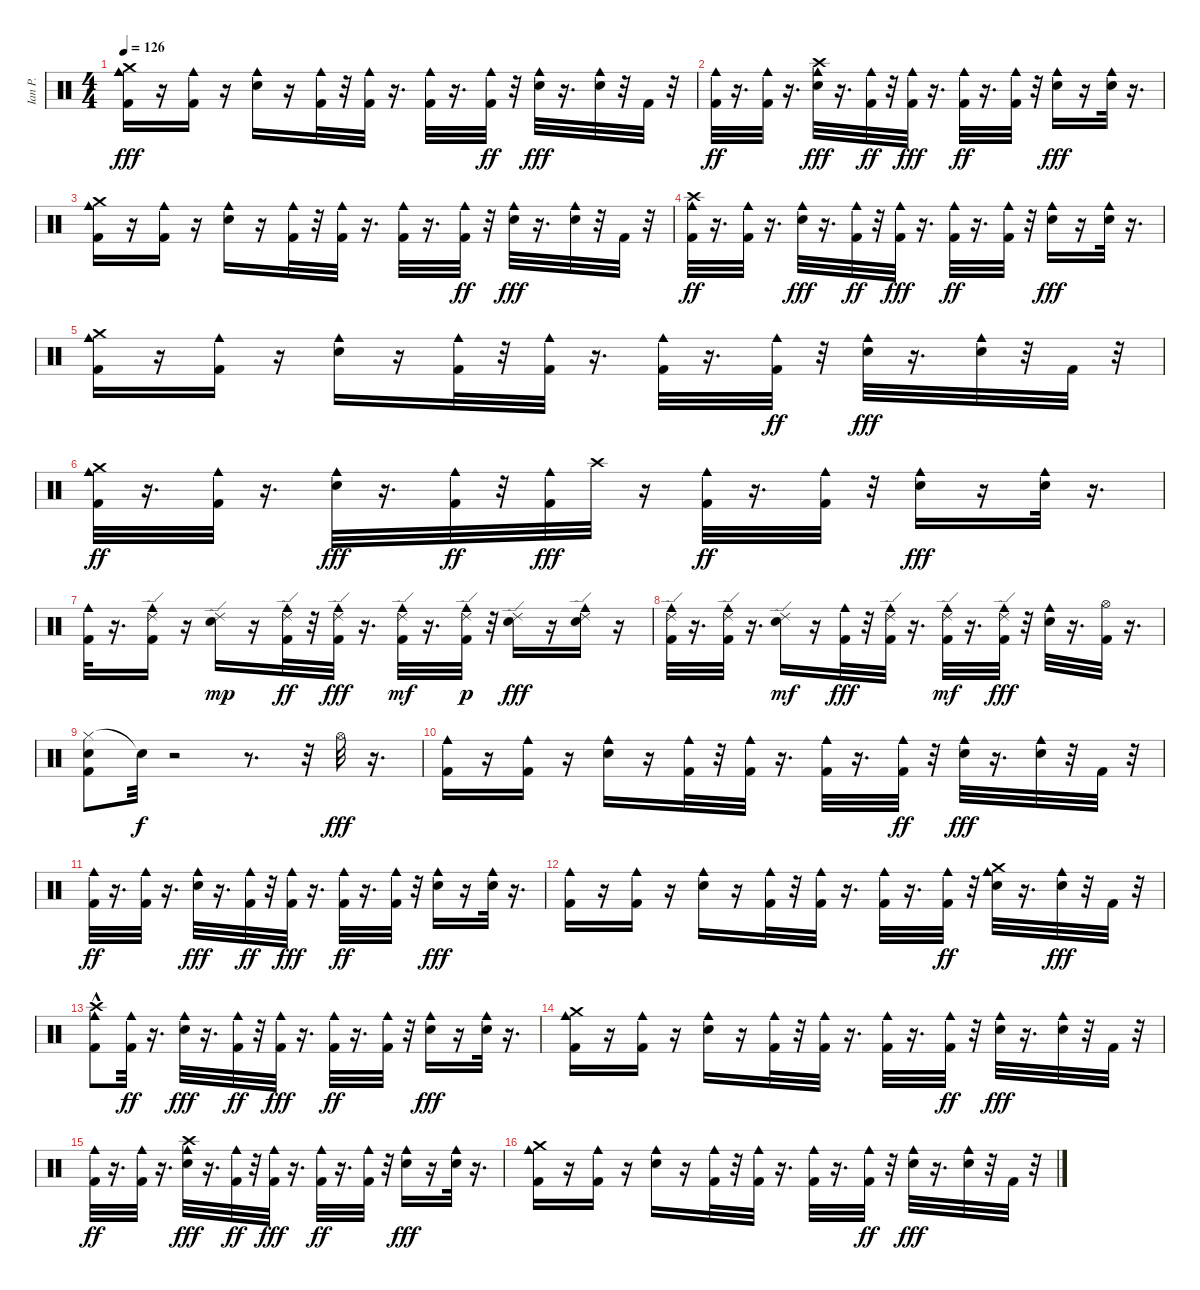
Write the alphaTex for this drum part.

\track ("Ian P." "Ian P.") {instrument percussion}
\staff {score}
\articulation defaults
\ts (4 4)
\tempo 126
\clef neutral
\ks c
("Cowbell medium (hit)" "Kick (hit) 2" "Crash medium (hit)").16{dy fff} r.16 ("Cowbell medium (hit)" "Kick (hit) 2").16 r.16 ("Cowbell medium (hit)" "Snare (hit) 2").16 r.16 ("Cowbell medium (hit)" "Kick (hit) 2").32 r.32 ("Cowbell medium (hit)" "Kick (hit) 2").32 r.16{d} ("Kick (hit) 2" "Cowbell medium (hit)").32 r.16{d} ("Kick (hit) 2" "Cowbell medium (hit)").32{dy ff} r.32 ("Snare (hit) 2" "Cowbell medium (hit)").32{dy fff} r.16{d} ("Snare (hit) 2" "Cowbell medium (hit)").32 r.32 "Kick (hit) 2".32 r.32 |
("Kick (hit) 2" "Cowbell medium (hit)").32{dy ff} r.16{d} ("Kick (hit) 2" "Cowbell medium (hit)").32 r.16{d} ("Cowbell medium (hit)" "Snare (hit) 2" "Crash high (hit)").32{dy fff} r.16{d} ("Cowbell medium (hit)" "Kick (hit) 2").32{dy ff} r.32 ("Cowbell medium (hit)" "Kick (hit) 2").32{dy fff} r.16{d} ("Kick (hit) 2" "Cowbell medium (hit)").32{dy ff} r.16{d} ("Cowbell medium (hit)" "Kick (hit) 2").32 r.32 ("Cowbell medium (hit)" "Snare (hit) 2").16{dy fff} r.16 ("Cowbell medium (hit)" "Snare (hit) 2").32 r.16{d} |
("Cowbell medium (hit)" "Crash medium (hit)" "Kick (hit) 2").16 r.16 ("Cowbell medium (hit)" "Kick (hit) 2").16 r.16 ("Cowbell medium (hit)" "Snare (hit) 2").16 r.16 ("Cowbell medium (hit)" "Kick (hit) 2").32 r.32 ("Cowbell medium (hit)" "Kick (hit) 2").32 r.16{d} ("Kick (hit) 2" "Cowbell medium (hit)").32 r.16{d} ("Kick (hit) 2" "Cowbell medium (hit)").32{dy ff} r.32 ("Snare (hit) 2" "Cowbell medium (hit)").32{dy fff} r.16{d} ("Snare (hit) 2" "Cowbell medium (hit)").32 r.32 "Kick (hit) 2".32 r.32 |
("Kick (hit) 2" "Crash high (hit)" "Cowbell medium (hit)").32{dy ff} r.16{d} ("Kick (hit) 2" "Cowbell medium (hit)").32 r.16{d} ("Cowbell medium (hit)" "Snare (hit) 2").32{dy fff} r.16{d} ("Cowbell medium (hit)" "Kick (hit) 2").32{dy ff} r.32 ("Cowbell medium (hit)" "Kick (hit) 2").32{dy fff} r.16{d} ("Kick (hit) 2" "Cowbell medium (hit)").32{dy ff} r.16{d} ("Cowbell medium (hit)" "Kick (hit) 2").32 r.32 ("Cowbell medium (hit)" "Snare (hit) 2").16{dy fff} r.16 ("Cowbell medium (hit)" "Snare (hit) 2").32 r.16{d} |
("Cowbell medium (hit)" "Crash medium (hit)" "Kick (hit) 2").16 r.16 ("Cowbell medium (hit)" "Kick (hit) 2").16 r.16 ("Cowbell medium (hit)" "Snare (hit) 2").16 r.16 ("Cowbell medium (hit)" "Kick (hit) 2").32 r.32 ("Cowbell medium (hit)" "Kick (hit) 2").32 r.16{d} ("Kick (hit) 2" "Cowbell medium (hit)").32 r.16{d} ("Kick (hit) 2" "Cowbell medium (hit)").32{dy ff} r.32 ("Snare (hit) 2" "Cowbell medium (hit)").32{dy fff} r.16{d} ("Snare (hit) 2" "Cowbell medium (hit)").32 r.32 "Kick (hit) 2".32 r.32 |
("Kick (hit) 2" "Crash medium (hit)" "Cowbell medium (hit)").32{dy ff} r.16{d} ("Kick (hit) 2" "Cowbell medium (hit)").32 r.16{d} ("Cowbell medium (hit)" "Snare (hit) 2").32{dy fff} r.16{d} ("Cowbell medium (hit)" "Kick (hit) 2").32{dy ff} r.32 ("Cowbell medium (hit)" "Kick (hit) 2").32{dy fff} "Crash high (hit)".32 r.16 ("Kick (hit) 2" "Cowbell medium (hit)").32{dy ff} r.16{d} ("Cowbell medium (hit)" "Kick (hit) 2").32 r.32 ("Cowbell medium (hit)" "Snare (hit) 2").16{dy fff} r.16 ("Cowbell medium (hit)" "Snare (hit) 2").32 r.16{d} |
("Cowbell medium (hit)" "Kick (hit) 2").32 r.16{d} ("Ride (edge) 2" "Cowbell medium (hit)" "Kick (hit) 2").16 r.16 ("Snare (hit) 2" "Ride (edge) 2").16{dy mp} r.16 ("Cowbell medium (hit)" "Kick (hit) 2" "Ride (edge) 2").32{dy ff} r.32 ("Cowbell medium (hit)" "Kick (hit) 2" "Ride (edge) 2").32{dy fff} r.16{d} ("Kick (hit) 2" "Cowbell medium (hit)" "Ride (edge) 2").32{dy mf} r.16{d} ("Kick (hit) 2" "Cowbell medium (hit)" "Ride (edge) 2").32{dy p} r.32 ("Snare (hit) 2" "Ride (edge) 2").16{dy fff} r.16 ("Cowbell medium (hit)" "Ride (edge) 2" "Snare (hit) 2").16 r.16 |
("Cowbell medium (hit)" "Ride (edge) 2" "Kick (hit) 2").32 r.16{d} ("Ride (edge) 2" "Kick (hit) 2" "Cowbell medium (hit)").32 r.16{d} ("Snare (hit) 2" "Ride (edge) 2").16{dy mf} r.16 ("Kick (hit) 2" "Cowbell medium (hit)").32{dy fff} r.32 ("Ride (edge) 2" "Kick (hit) 2" "Cowbell medium (hit)").32 r.16{d} ("Kick (hit) 2" "Cowbell medium (hit)" "Ride (edge) 2").32{dy mf} r.16{d} ("Ride (edge) 2" "Cowbell medium (hit)" "Kick (hit) 2").32{dy fff} r.32 ("Cowbell medium (hit)" "Snare (hit) 2").32 r.16{d} ("Hi-Hat (open)" "Kick (hit) 2").32 r.16{d} |
("Hi-Hat (closed)" "Kick (hit) 2" "Snare (hit) 2").8 "Snare (hit)"{t}.32{dy f} r.2 r.8{d} r.32 "Hi-Hat (open)".32{dy fff} r.16{d} |
("Cowbell medium (hit)" "Kick (hit) 2").16 r.16 ("Cowbell medium (hit)" "Kick (hit) 2").16 r.16 ("Cowbell medium (hit)" "Snare (hit) 2").16 r.16 ("Cowbell medium (hit)" "Kick (hit) 2").32 r.32 ("Cowbell medium (hit)" "Kick (hit) 2").32 r.16{d} ("Kick (hit) 2" "Cowbell medium (hit)").32 r.16{d} ("Kick (hit) 2" "Cowbell medium (hit)").32{dy ff} r.32 ("Snare (hit) 2" "Cowbell medium (hit)").32{dy fff} r.16{d} ("Snare (hit) 2" "Cowbell medium (hit)").32 r.32 "Kick (hit) 2".32 r.32 |
("Kick (hit) 2" "Cowbell medium (hit)").32{dy ff} r.16{d} ("Kick (hit) 2" "Cowbell medium (hit)").32 r.16{d} ("Cowbell medium (hit)" "Snare (hit) 2").32{dy fff} r.16{d} ("Cowbell medium (hit)" "Kick (hit) 2").32{dy ff} r.32 ("Cowbell medium (hit)" "Kick (hit) 2").32{dy fff} r.16{d} ("Kick (hit) 2" "Cowbell medium (hit)").32{dy ff} r.16{d} ("Cowbell medium (hit)" "Kick (hit) 2").32 r.32 ("Cowbell medium (hit)" "Snare (hit) 2").16{dy fff} r.16 ("Cowbell medium (hit)" "Snare (hit) 2").32 r.16{d} |
("Cowbell medium (hit)" "Kick (hit) 2").16 r.16 ("Cowbell medium (hit)" "Kick (hit) 2").16 r.16 ("Cowbell medium (hit)" "Snare (hit) 2").16 r.16 ("Cowbell medium (hit)" "Kick (hit) 2").32 r.32 ("Cowbell medium (hit)" "Kick (hit) 2").32 r.16{d} ("Kick (hit) 2" "Cowbell medium (hit)").32 r.16{d} ("Kick (hit) 2" "Cowbell medium (hit)").32{dy ff} r.32 ("Snare (hit) 2" "Cowbell medium (hit)" "Crash medium (hit)").32 r.16{d} ("Snare (hit) 2" "Cowbell medium (hit)").32{dy fff} r.32 "Kick (hit) 2".32 r.32 |
("Kick (hit) 2" "Cowbell medium (hit)" "Crash high (hit)"{hac}).8 ("Kick (hit) 2" "Cowbell medium (hit)").32{dy ff} r.16{d} ("Cowbell medium (hit)" "Snare (hit) 2").32{dy fff} r.16{d} ("Cowbell medium (hit)" "Kick (hit) 2").32{dy ff} r.32 ("Cowbell medium (hit)" "Kick (hit) 2").32{dy fff} r.16{d} ("Kick (hit) 2" "Cowbell medium (hit)").32{dy ff} r.16{d} ("Cowbell medium (hit)" "Kick (hit) 2").32 r.32 ("Cowbell medium (hit)" "Snare (hit) 2").16{dy fff} r.16 ("Cowbell medium (hit)" "Snare (hit) 2").32 r.16{d} |
("Cowbell medium (hit)" "Kick (hit) 2" "Crash medium (hit)").16 r.16 ("Cowbell medium (hit)" "Kick (hit) 2").16 r.16 ("Cowbell medium (hit)" "Snare (hit) 2").16 r.16 ("Cowbell medium (hit)" "Kick (hit) 2").32 r.32 ("Cowbell medium (hit)" "Kick (hit) 2").32 r.16{d} ("Kick (hit) 2" "Cowbell medium (hit)").32 r.16{d} ("Kick (hit) 2" "Cowbell medium (hit)").32{dy ff} r.32 ("Snare (hit) 2" "Cowbell medium (hit)").32{dy fff} r.16{d} ("Snare (hit) 2" "Cowbell medium (hit)").32 r.32 "Kick (hit) 2".32 r.32 |
("Kick (hit) 2" "Cowbell medium (hit)").32{dy ff} r.16{d} ("Kick (hit) 2" "Cowbell medium (hit)").32 r.16{d} ("Cowbell medium (hit)" "Snare (hit) 2" "Crash high (hit)").32{dy fff} r.16{d} ("Cowbell medium (hit)" "Kick (hit) 2").32{dy ff} r.32 ("Cowbell medium (hit)" "Kick (hit) 2").32{dy fff} r.16{d} ("Kick (hit) 2" "Cowbell medium (hit)").32{dy ff} r.16{d} ("Cowbell medium (hit)" "Kick (hit) 2").32 r.32 ("Cowbell medium (hit)" "Snare (hit) 2").16{dy fff} r.16 ("Cowbell medium (hit)" "Snare (hit) 2").32 r.16{d} |
("Cowbell medium (hit)" "Crash medium (hit)" "Kick (hit) 2").16 r.16 ("Cowbell medium (hit)" "Kick (hit) 2").16 r.16 ("Cowbell medium (hit)" "Snare (hit) 2").16 r.16 ("Cowbell medium (hit)" "Kick (hit) 2").32 r.32 ("Cowbell medium (hit)" "Kick (hit) 2").32 r.16{d} ("Kick (hit) 2" "Cowbell medium (hit)").32 r.16{d} ("Kick (hit) 2" "Cowbell medium (hit)").32{dy ff} r.32 ("Snare (hit) 2" "Cowbell medium (hit)").32{dy fff} r.16{d} ("Snare (hit) 2" "Cowbell medium (hit)").32 r.32 "Kick (hit) 2".32 r.32
